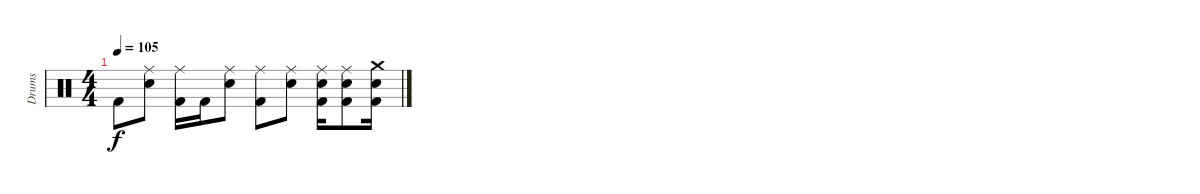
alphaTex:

\track ("Drums" "Drums") {instrument percussion}
\staff {score}
\articulation defaults
\ts (4 4)
\tempo 105
\clef neutral
\ks c "Kick (hit) 2".8{dy f}
("Ride (middle)" "Electric Snare (hit)").8 ("Ride (middle)" "Kick (hit) 2").16 "Kick (hit) 2".16 ("Ride (middle)" "Electric Snare (hit)").8 ("Ride (middle)" "Kick (hit) 2").8 ("Ride (middle)" "Electric Snare (hit)").8 ("Ride (middle)" "Electric Snare (hit)" "Kick (hit) 2").16 ("Ride (middle)" "Electric Snare (hit)" "Kick (hit) 2").8 ("Crash medium (hit)" "Electric Snare (hit)" "Kick (hit) 2").16
